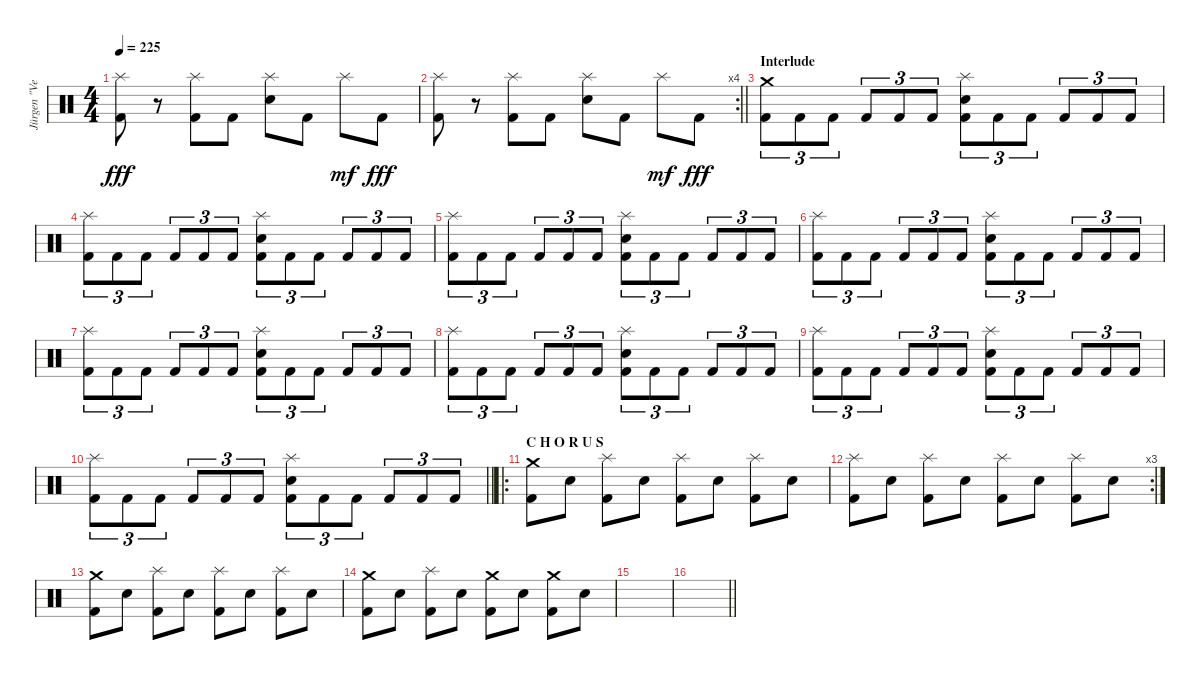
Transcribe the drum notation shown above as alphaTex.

\track ("Jürgen \"Ventor\" Reil" "Jürgen \"Ve") {instrument percussion}
\staff {score}
\articulation defaults
\ts (4 4)
\tempo 225
\clef neutral
\ks c
("Splash (hit)" "Kick (hit) 2").8{dy fff} r.8 ("Splash (hit)" "Kick (hit) 2").8 "Kick (hit) 2".8 ("Splash (hit)" "Electric Snare (hit)").8 "Kick (hit) 2".8 "Splash (hit)".8{dy mf} "Kick (hit) 2".8{dy fff} |
\rc 4
\barLineRight lightlight
("Splash (hit)" "Kick (hit) 2").8 r.8 ("Splash (hit)" "Kick (hit) 2").8 "Kick (hit) 2".8 ("Splash (hit)" "Electric Snare (hit)").8 "Kick (hit) 2".8 "Splash (hit)".8{dy mf} "Kick (hit) 2".8{dy fff} |
\section ("" "Interlude")
("Crash medium (hit)" "Kick (hit) 2").8{tu (3 2)} "Kick (hit) 2".8{tu (3 2)} "Kick (hit) 2".8{tu (3 2)} "Kick (hit) 2".8{tu (3 2)} "Kick (hit) 2".8{tu (3 2)} "Kick (hit) 2".8{tu (3 2)} ("Splash (hit)" "Electric Snare (hit)" "Kick (hit) 2").8{tu (3 2)} "Kick (hit) 2".8{tu (3 2)} "Kick (hit) 2".8{tu (3 2)} "Kick (hit) 2".8{tu (3 2)} "Kick (hit) 2".8{tu (3 2)} "Kick (hit) 2".8{tu (3 2)} |
("Splash (hit)" "Kick (hit) 2").8{tu (3 2)} "Kick (hit) 2".8{tu (3 2)} "Kick (hit) 2".8{tu (3 2)} "Kick (hit) 2".8{tu (3 2)} "Kick (hit) 2".8{tu (3 2)} "Kick (hit) 2".8{tu (3 2)} ("Splash (hit)" "Electric Snare (hit)" "Kick (hit) 2").8{tu (3 2)} "Kick (hit) 2".8{tu (3 2)} "Kick (hit) 2".8{tu (3 2)} "Kick (hit) 2".8{tu (3 2)} "Kick (hit) 2".8{tu (3 2)} "Kick (hit) 2".8{tu (3 2)} |
("Splash (hit)" "Kick (hit) 2").8{tu (3 2)} "Kick (hit) 2".8{tu (3 2)} "Kick (hit) 2".8{tu (3 2)} "Kick (hit) 2".8{tu (3 2)} "Kick (hit) 2".8{tu (3 2)} "Kick (hit) 2".8{tu (3 2)} ("Splash (hit)" "Electric Snare (hit)" "Kick (hit) 2").8{tu (3 2)} "Kick (hit) 2".8{tu (3 2)} "Kick (hit) 2".8{tu (3 2)} "Kick (hit) 2".8{tu (3 2)} "Kick (hit) 2".8{tu (3 2)} "Kick (hit) 2".8{tu (3 2)} |
("Splash (hit)" "Kick (hit) 2").8{tu (3 2)} "Kick (hit) 2".8{tu (3 2)} "Kick (hit) 2".8{tu (3 2)} "Kick (hit) 2".8{tu (3 2)} "Kick (hit) 2".8{tu (3 2)} "Kick (hit) 2".8{tu (3 2)} ("Splash (hit)" "Electric Snare (hit)" "Kick (hit) 2").8{tu (3 2)} "Kick (hit) 2".8{tu (3 2)} "Kick (hit) 2".8{tu (3 2)} "Kick (hit) 2".8{tu (3 2)} "Kick (hit) 2".8{tu (3 2)} "Kick (hit) 2".8{tu (3 2)} |
("Splash (hit)" "Kick (hit) 2").8{tu (3 2)} "Kick (hit) 2".8{tu (3 2)} "Kick (hit) 2".8{tu (3 2)} "Kick (hit) 2".8{tu (3 2)} "Kick (hit) 2".8{tu (3 2)} "Kick (hit) 2".8{tu (3 2)} ("Splash (hit)" "Electric Snare (hit)" "Kick (hit) 2").8{tu (3 2)} "Kick (hit) 2".8{tu (3 2)} "Kick (hit) 2".8{tu (3 2)} "Kick (hit) 2".8{tu (3 2)} "Kick (hit) 2".8{tu (3 2)} "Kick (hit) 2".8{tu (3 2)} |
("Splash (hit)" "Kick (hit) 2").8{tu (3 2)} "Kick (hit) 2".8{tu (3 2)} "Kick (hit) 2".8{tu (3 2)} "Kick (hit) 2".8{tu (3 2)} "Kick (hit) 2".8{tu (3 2)} "Kick (hit) 2".8{tu (3 2)} ("Splash (hit)" "Electric Snare (hit)" "Kick (hit) 2").8{tu (3 2)} "Kick (hit) 2".8{tu (3 2)} "Kick (hit) 2".8{tu (3 2)} "Kick (hit) 2".8{tu (3 2)} "Kick (hit) 2".8{tu (3 2)} "Kick (hit) 2".8{tu (3 2)} |
("Splash (hit)" "Kick (hit) 2").8{tu (3 2)} "Kick (hit) 2".8{tu (3 2)} "Kick (hit) 2".8{tu (3 2)} "Kick (hit) 2".8{tu (3 2)} "Kick (hit) 2".8{tu (3 2)} "Kick (hit) 2".8{tu (3 2)} ("Splash (hit)" "Electric Snare (hit)" "Kick (hit) 2").8{tu (3 2)} "Kick (hit) 2".8{tu (3 2)} "Kick (hit) 2".8{tu (3 2)} "Kick (hit) 2".8{tu (3 2)} "Kick (hit) 2".8{tu (3 2)} "Kick (hit) 2".8{tu (3 2)} |
\barLineRight lightlight
("Splash (hit)" "Kick (hit) 2").8{tu (3 2)} "Kick (hit) 2".8{tu (3 2)} "Kick (hit) 2".8{tu (3 2)} "Kick (hit) 2".8{tu (3 2)} "Kick (hit) 2".8{tu (3 2)} "Kick (hit) 2".8{tu (3 2)} ("Splash (hit)" "Electric Snare (hit)" "Kick (hit) 2").8{tu (3 2)} "Kick (hit) 2".8{tu (3 2)} "Kick (hit) 2".8{tu (3 2)} "Kick (hit) 2".8{tu (3 2)} "Kick (hit) 2".8{tu (3 2)} "Kick (hit) 2".8{tu (3 2)} |
\ro
\section ("" "C H O R U S")
("Crash medium (hit)" "Kick (hit) 2").8 "Electric Snare (hit)".8 ("Splash (hit)" "Kick (hit) 2").8 "Electric Snare (hit)".8 ("Splash (hit)" "Kick (hit) 2").8 "Electric Snare (hit)".8 ("Splash (hit)" "Kick (hit) 2").8 "Electric Snare (hit)".8 |
\rc 3
("Splash (hit)" "Kick (hit) 2").8 "Electric Snare (hit)".8 ("Splash (hit)" "Kick (hit) 2").8 "Electric Snare (hit)".8 ("Splash (hit)" "Kick (hit) 2").8 "Electric Snare (hit)".8 ("Splash (hit)" "Kick (hit) 2").8 "Electric Snare (hit)".8 |
("Crash medium (hit)" "Kick (hit) 2").8 "Electric Snare (hit)".8 ("Splash (hit)" "Kick (hit) 2").8 "Electric Snare (hit)".8 ("Splash (hit)" "Kick (hit) 2").8 "Electric Snare (hit)".8 ("Splash (hit)" "Kick (hit) 2").8 "Electric Snare (hit)".8 |
("Crash medium (hit)" "Kick (hit) 2").8 "Electric Snare (hit)".8 ("Splash (hit)" "Kick (hit) 2").8 "Electric Snare (hit)".8 ("Crash medium (hit)" "Kick (hit) 2").8 "Electric Snare (hit)".8 ("Crash medium (hit)" "Kick (hit) 2").8 "Electric Snare (hit)".8 |
|
\barLineRight lightlight
